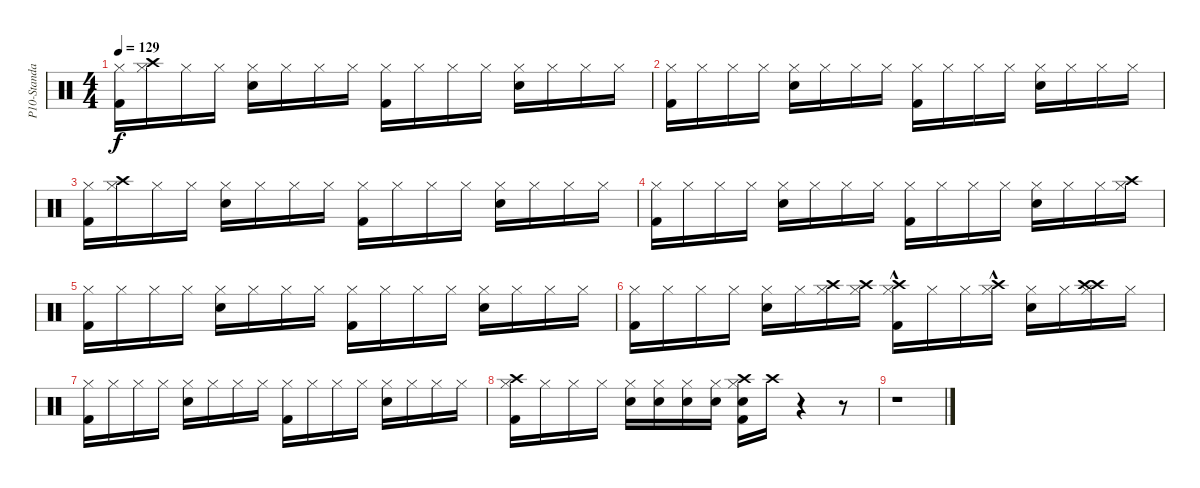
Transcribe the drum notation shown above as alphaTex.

\track ("P10-Standard Kit 2" "P10-Standa") {instrument percussion}
\staff {score}
\articulation defaults
\ts (4 4)
\tempo 129
\clef neutral
\ks c
("Hi-Hat (closed)" "Kick (hit) 2").16{dy f} ("Hi-Hat (closed)" "Crash high (hit)").16 "Hi-Hat (closed)".16 "Hi-Hat (closed)".16 ("Hi-Hat (closed)" "Snare (hit) 2").16 "Hi-Hat (closed)".16 "Hi-Hat (closed)".16 "Hi-Hat (closed)".16 ("Hi-Hat (closed)" "Kick (hit) 2").16 "Hi-Hat (closed)".16 "Hi-Hat (closed)".16 "Hi-Hat (closed)".16 ("Hi-Hat (closed)" "Snare (hit) 2").16 "Hi-Hat (closed)".16 "Hi-Hat (closed)".16 "Hi-Hat (closed)".16 |
("Hi-Hat (closed)" "Kick (hit) 2").16 "Hi-Hat (closed)".16 "Hi-Hat (closed)".16 "Hi-Hat (closed)".16 ("Hi-Hat (closed)" "Snare (hit) 2").16 "Hi-Hat (closed)".16 "Hi-Hat (closed)".16 "Hi-Hat (closed)".16 ("Hi-Hat (closed)" "Kick (hit) 2").16 "Hi-Hat (closed)".16 "Hi-Hat (closed)".16 "Hi-Hat (closed)".16 ("Hi-Hat (closed)" "Snare (hit) 2").16 "Hi-Hat (closed)".16 "Hi-Hat (closed)".16 "Hi-Hat (closed)".16 |
("Hi-Hat (closed)" "Kick (hit) 2").16 ("Crash high (hit)" "Hi-Hat (closed)").16 "Hi-Hat (closed)".16 "Hi-Hat (closed)".16 ("Hi-Hat (closed)" "Snare (hit) 2").16 "Hi-Hat (closed)".16 "Hi-Hat (closed)".16 "Hi-Hat (closed)".16 ("Hi-Hat (closed)" "Kick (hit) 2").16 "Hi-Hat (closed)".16 "Hi-Hat (closed)".16 "Hi-Hat (closed)".16 ("Hi-Hat (closed)" "Snare (hit) 2").16 "Hi-Hat (closed)".16 "Hi-Hat (closed)".16 "Hi-Hat (closed)".16 |
("Hi-Hat (closed)" "Kick (hit) 2").16 "Hi-Hat (closed)".16 "Hi-Hat (closed)".16 "Hi-Hat (closed)".16 ("Hi-Hat (closed)" "Snare (hit) 2").16 "Hi-Hat (closed)".16 "Hi-Hat (closed)".16 "Hi-Hat (closed)".16 ("Hi-Hat (closed)" "Kick (hit) 2").16 "Hi-Hat (closed)".16 "Hi-Hat (closed)".16 "Hi-Hat (closed)".16 ("Hi-Hat (closed)" "Snare (hit) 2").16 "Hi-Hat (closed)".16 "Hi-Hat (closed)".16 ("Hi-Hat (closed)" "Crash high (hit)").16 |
("Hi-Hat (closed)" "Kick (hit) 2").16 "Hi-Hat (closed)".16 "Hi-Hat (closed)".16 "Hi-Hat (closed)".16 ("Hi-Hat (closed)" "Snare (hit) 2").16 "Hi-Hat (closed)".16 "Hi-Hat (closed)".16 "Hi-Hat (closed)".16 ("Hi-Hat (closed)" "Kick (hit) 2").16 "Hi-Hat (closed)".16 "Hi-Hat (closed)".16 "Hi-Hat (closed)".16 ("Hi-Hat (closed)" "Snare (hit) 2").16 "Hi-Hat (closed)".16 "Hi-Hat (closed)".16 "Hi-Hat (closed)".16 |
("Hi-Hat (closed)" "Kick (hit) 2").16 "Hi-Hat (closed)".16 "Hi-Hat (closed)".16 "Hi-Hat (closed)".16 ("Hi-Hat (closed)" "Snare (hit) 2").16 "Hi-Hat (closed)".16 ("Hi-Hat (closed)" "Crash high (hit)").16 ("Hi-Hat (closed)" "Crash high (hit)").16 ("Crash high (hit)"{hac} "Hi-Hat (closed)" "Kick (hit) 2").16 "Hi-Hat (closed)".16 "Hi-Hat (closed)".16 ("Hi-Hat (closed)" "Crash high (hit)"{hac}).16 ("Hi-Hat (closed)" "Snare (hit) 2").16 "Hi-Hat (closed)".16 ("Crash high (hit)" "Hi-Hat (closed)" "Crash high (hit)").16 "Hi-Hat (closed)".16 |
("Hi-Hat (closed)" "Kick (hit) 2").16 "Hi-Hat (closed)".16 "Hi-Hat (closed)".16 "Hi-Hat (closed)".16 ("Hi-Hat (closed)" "Snare (hit) 2").16 "Hi-Hat (closed)".16 "Hi-Hat (closed)".16 "Hi-Hat (closed)".16 ("Hi-Hat (closed)" "Kick (hit) 2").16 "Hi-Hat (closed)".16 "Hi-Hat (closed)".16 "Hi-Hat (closed)".16 ("Hi-Hat (closed)" "Snare (hit) 2").16 "Hi-Hat (closed)".16 "Hi-Hat (closed)".16 "Hi-Hat (closed)".16 |
("Hi-Hat (closed)" "Kick (hit) 2" "Crash high (hit)").16 "Hi-Hat (closed)".16 "Hi-Hat (closed)".16 "Hi-Hat (closed)".16 ("Hi-Hat (closed)" "Snare (hit) 2").16 ("Hi-Hat (closed)" "Snare (hit) 2").16 ("Hi-Hat (closed)" "Snare (hit) 2").16 ("Hi-Hat (closed)" "Snare (hit) 2").16 ("Crash high (hit)" "Kick (hit) 2" "Hi-Hat (closed)" "Snare (hit) 2").16 "Crash high (hit)".16 r.4 r.8 |
r.1
